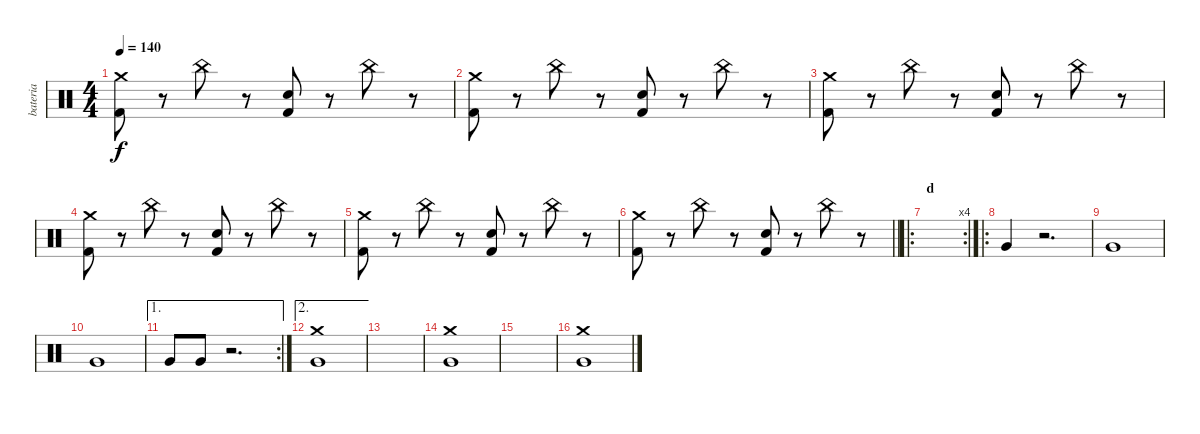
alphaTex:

\track ("bateria" "bateria") {mute instrument percussion}
\staff {score}
\articulation defaults
\ts (4 4)
\tempo 140
\clef neutral
\ks c
("Kick (hit) 2" "Crash medium (hit)").8{dy f} r.8 "China (hit)".8 r.8 ("Kick (hit) 2" "Electric Snare (hit)").8 r.8 "China (hit)".8 r.8 |
("Kick (hit) 2" "Crash medium (hit)").8 r.8 "China (hit)".8 r.8 ("Kick (hit) 2" "Electric Snare (hit)").8 r.8 "China (hit)".8 r.8 |
("Kick (hit) 2" "Crash medium (hit)").8 r.8 "China (hit)".8 r.8 ("Kick (hit) 2" "Electric Snare (hit)").8 r.8 "China (hit)".8 r.8 |
("Kick (hit) 2" "Crash medium (hit)").8 r.8 "China (hit)".8 r.8 ("Kick (hit) 2" "Electric Snare (hit)").8 r.8 "China (hit)".8 r.8 |
("Kick (hit) 2" "Crash medium (hit)").8 r.8 "China (hit)".8 r.8 ("Kick (hit) 2" "Electric Snare (hit)").8 r.8 "China (hit)".8 r.8 |
\barLineRight lightlight
("Kick (hit) 2" "Crash medium (hit)").8 r.8 "China (hit)".8 r.8 ("Kick (hit) 2" "Electric Snare (hit)").8 r.8 "China (hit)".8 r.8 |
\ro
\rc 4
\section ("" "d")
|
\ro "Very Low Tom (hit)".4
r.2{d} |
"Very Low Tom (hit)".1 |
"Very Low Tom (hit)".1 |
\ae 1
\rc 2 "Very Low Tom (hit)".8 "Very Low Tom (hit)".8
r.2{d} |
\ae 2
("Very Low Tom (hit)" "Crash medium (hit)").1 |
|
("Very Low Tom (hit)" "Crash medium (hit)").1 |
|
("Very Low Tom (hit)" "Crash medium (hit)").1
